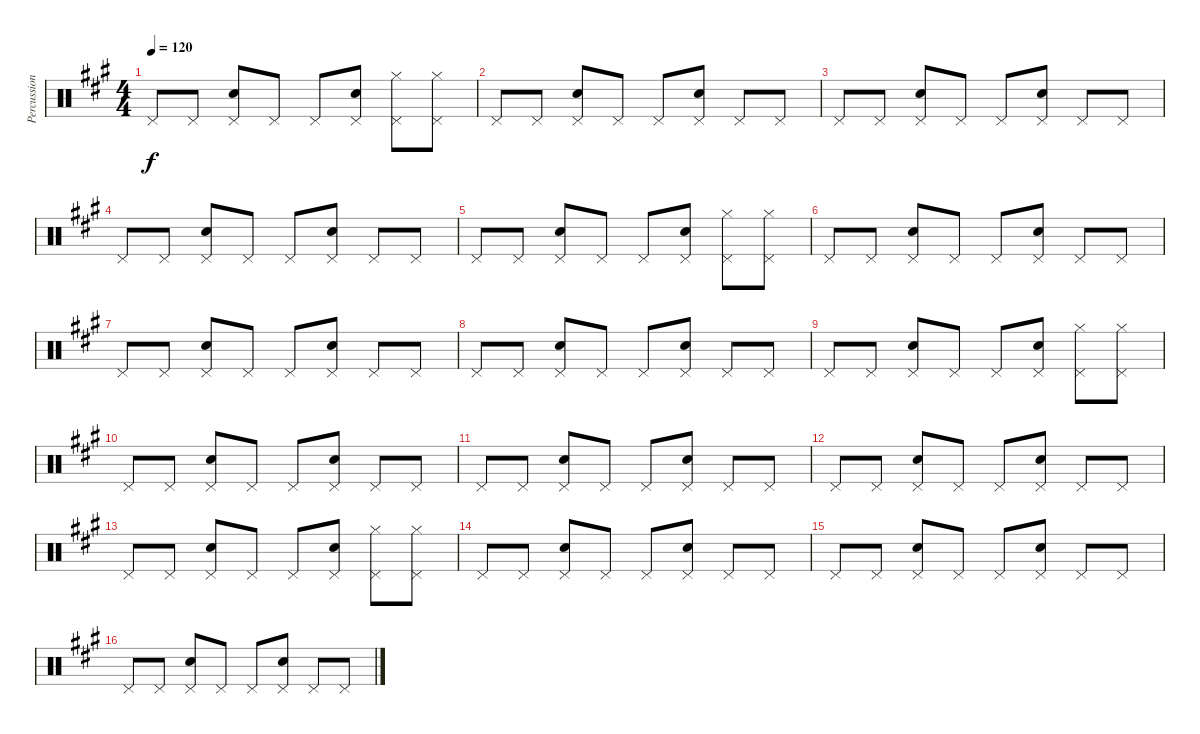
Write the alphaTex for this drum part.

\track ("Percussion" "Percussion") {instrument percussion}
\staff {score}
\articulation defaults
\ts (4 4)
\tempo 120
\clef neutral
\ks a "Pedal Hi-Hat (hit)".8{dy f} "Pedal Hi-Hat (hit)".8
("Snare (hit) 2" "Pedal Hi-Hat (hit)").8 "Pedal Hi-Hat (hit)".8 "Pedal Hi-Hat (hit)".8 ("Snare (hit) 2" "Pedal Hi-Hat (hit)").8 ("Hi-Hat (closed)" "Pedal Hi-Hat (hit)").8 ("Hi-Hat (closed)" "Pedal Hi-Hat (hit)").8 |
"Pedal Hi-Hat (hit)".8 "Pedal Hi-Hat (hit)".8 ("Snare (hit) 2" "Pedal Hi-Hat (hit)").8 "Pedal Hi-Hat (hit)".8 "Pedal Hi-Hat (hit)".8 ("Snare (hit) 2" "Pedal Hi-Hat (hit)").8 "Pedal Hi-Hat (hit)".8 "Pedal Hi-Hat (hit)".8 |
"Pedal Hi-Hat (hit)".8 "Pedal Hi-Hat (hit)".8 ("Snare (hit) 2" "Pedal Hi-Hat (hit)").8 "Pedal Hi-Hat (hit)".8 "Pedal Hi-Hat (hit)".8 ("Snare (hit) 2" "Pedal Hi-Hat (hit)").8 "Pedal Hi-Hat (hit)".8 "Pedal Hi-Hat (hit)".8 |
"Pedal Hi-Hat (hit)".8 "Pedal Hi-Hat (hit)".8 ("Snare (hit) 2" "Pedal Hi-Hat (hit)").8 "Pedal Hi-Hat (hit)".8 "Pedal Hi-Hat (hit)".8 ("Snare (hit) 2" "Pedal Hi-Hat (hit)").8 "Pedal Hi-Hat (hit)".8 "Pedal Hi-Hat (hit)".8 |
"Pedal Hi-Hat (hit)".8 "Pedal Hi-Hat (hit)".8 ("Snare (hit) 2" "Pedal Hi-Hat (hit)").8 "Pedal Hi-Hat (hit)".8 "Pedal Hi-Hat (hit)".8 ("Snare (hit) 2" "Pedal Hi-Hat (hit)").8 ("Hi-Hat (closed)" "Pedal Hi-Hat (hit)").8 ("Hi-Hat (closed)" "Pedal Hi-Hat (hit)").8 |
"Pedal Hi-Hat (hit)".8 "Pedal Hi-Hat (hit)".8 ("Snare (hit) 2" "Pedal Hi-Hat (hit)").8 "Pedal Hi-Hat (hit)".8 "Pedal Hi-Hat (hit)".8 ("Snare (hit) 2" "Pedal Hi-Hat (hit)").8 "Pedal Hi-Hat (hit)".8 "Pedal Hi-Hat (hit)".8 |
"Pedal Hi-Hat (hit)".8 "Pedal Hi-Hat (hit)".8 ("Snare (hit) 2" "Pedal Hi-Hat (hit)").8 "Pedal Hi-Hat (hit)".8 "Pedal Hi-Hat (hit)".8 ("Snare (hit) 2" "Pedal Hi-Hat (hit)").8 "Pedal Hi-Hat (hit)".8 "Pedal Hi-Hat (hit)".8 |
"Pedal Hi-Hat (hit)".8 "Pedal Hi-Hat (hit)".8 ("Snare (hit) 2" "Pedal Hi-Hat (hit)").8 "Pedal Hi-Hat (hit)".8 "Pedal Hi-Hat (hit)".8 ("Snare (hit) 2" "Pedal Hi-Hat (hit)").8 "Pedal Hi-Hat (hit)".8 "Pedal Hi-Hat (hit)".8 |
"Pedal Hi-Hat (hit)".8 "Pedal Hi-Hat (hit)".8 ("Snare (hit) 2" "Pedal Hi-Hat (hit)").8 "Pedal Hi-Hat (hit)".8 "Pedal Hi-Hat (hit)".8 ("Snare (hit) 2" "Pedal Hi-Hat (hit)").8 ("Hi-Hat (closed)" "Pedal Hi-Hat (hit)").8 ("Hi-Hat (closed)" "Pedal Hi-Hat (hit)").8 |
"Pedal Hi-Hat (hit)".8 "Pedal Hi-Hat (hit)".8 ("Snare (hit) 2" "Pedal Hi-Hat (hit)").8 "Pedal Hi-Hat (hit)".8 "Pedal Hi-Hat (hit)".8 ("Snare (hit) 2" "Pedal Hi-Hat (hit)").8 "Pedal Hi-Hat (hit)".8 "Pedal Hi-Hat (hit)".8 |
"Pedal Hi-Hat (hit)".8 "Pedal Hi-Hat (hit)".8 ("Snare (hit) 2" "Pedal Hi-Hat (hit)").8 "Pedal Hi-Hat (hit)".8 "Pedal Hi-Hat (hit)".8 ("Snare (hit) 2" "Pedal Hi-Hat (hit)").8 "Pedal Hi-Hat (hit)".8 "Pedal Hi-Hat (hit)".8 |
"Pedal Hi-Hat (hit)".8 "Pedal Hi-Hat (hit)".8 ("Snare (hit) 2" "Pedal Hi-Hat (hit)").8 "Pedal Hi-Hat (hit)".8 "Pedal Hi-Hat (hit)".8 ("Snare (hit) 2" "Pedal Hi-Hat (hit)").8 "Pedal Hi-Hat (hit)".8 "Pedal Hi-Hat (hit)".8 |
"Pedal Hi-Hat (hit)".8 "Pedal Hi-Hat (hit)".8 ("Snare (hit) 2" "Pedal Hi-Hat (hit)").8 "Pedal Hi-Hat (hit)".8 "Pedal Hi-Hat (hit)".8 ("Snare (hit) 2" "Pedal Hi-Hat (hit)").8 ("Hi-Hat (closed)" "Pedal Hi-Hat (hit)").8 ("Hi-Hat (closed)" "Pedal Hi-Hat (hit)").8 |
"Pedal Hi-Hat (hit)".8 "Pedal Hi-Hat (hit)".8 ("Snare (hit) 2" "Pedal Hi-Hat (hit)").8 "Pedal Hi-Hat (hit)".8 "Pedal Hi-Hat (hit)".8 ("Snare (hit) 2" "Pedal Hi-Hat (hit)").8 "Pedal Hi-Hat (hit)".8 "Pedal Hi-Hat (hit)".8 |
"Pedal Hi-Hat (hit)".8 "Pedal Hi-Hat (hit)".8 ("Snare (hit) 2" "Pedal Hi-Hat (hit)").8 "Pedal Hi-Hat (hit)".8 "Pedal Hi-Hat (hit)".8 ("Snare (hit) 2" "Pedal Hi-Hat (hit)").8 "Pedal Hi-Hat (hit)".8 "Pedal Hi-Hat (hit)".8 |
"Pedal Hi-Hat (hit)".8 "Pedal Hi-Hat (hit)".8 ("Snare (hit) 2" "Pedal Hi-Hat (hit)").8 "Pedal Hi-Hat (hit)".8 "Pedal Hi-Hat (hit)".8 ("Snare (hit) 2" "Pedal Hi-Hat (hit)").8 "Pedal Hi-Hat (hit)".8 "Pedal Hi-Hat (hit)".8
